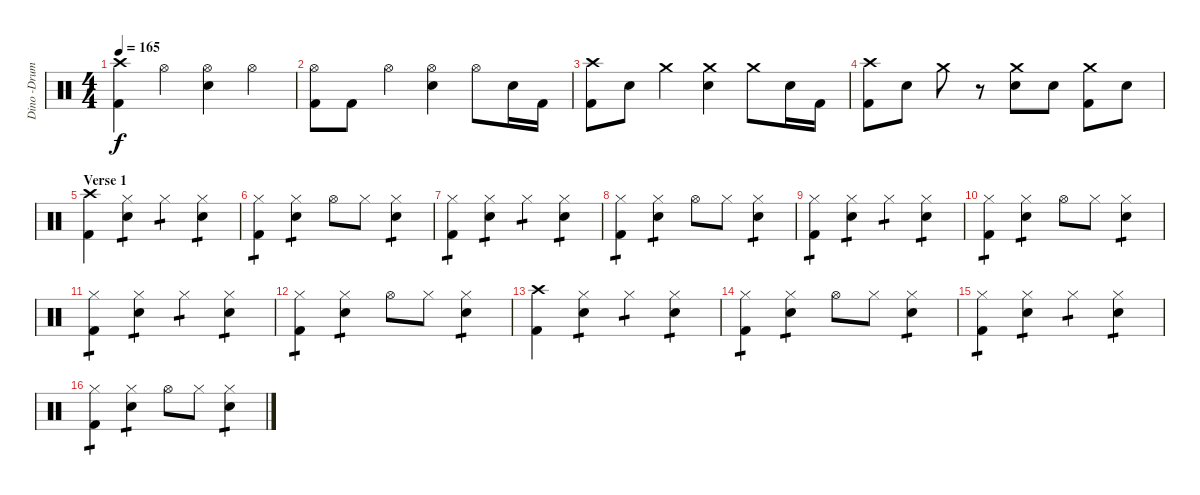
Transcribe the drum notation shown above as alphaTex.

\track ("Dino -Drums" "Dino -Drum") {instrument percussion}
\staff {score}
\articulation defaults
\ts (4 4)
\tempo 165
\clef neutral
\ks c
("Crash high (hit)" "Kick (hit) 2").4{dy f} "Hi-Hat (open)".4 ("Hi-Hat (open)" "Electric Snare (hit)").4 "Hi-Hat (open)".4 |
("Hi-Hat (open)" "Kick (hit) 2").8 "Kick (hit) 2".8 "Hi-Hat (open)".4 ("Hi-Hat (open)" "Electric Snare (hit)").4 "Hi-Hat (open)".8 "Electric Snare (hit)".16 "Kick (hit) 2".16 |
("Crash high (hit)" "Kick (hit) 2").8 "Electric Snare (hit)".8 "Crash medium (hit)".4 ("Crash medium (hit)" "Electric Snare (hit)").4 "Crash medium (hit)".8 "Electric Snare (hit)".16 "Kick (hit) 2".16 |
("Crash high (hit)" "Kick (hit) 2").8 "Electric Snare (hit)".8 "Crash medium (hit)".8 r.8 ("Crash medium (hit)" "Electric Snare (hit)").8 "Electric Snare (hit)".8 ("Crash medium (hit)" "Kick (hit) 2").8 "Electric Snare (hit)".8 |
\section ("" "Verse 1")
("Crash high (hit)" "Kick (hit) 2").4 ("Hi-Hat (closed)" "Electric Snare (hit)").4{tp 1} "Hi-Hat (closed)".4{tp 1} ("Hi-Hat (closed)" "Electric Snare (hit)").4{tp 1} |
("Hi-Hat (closed)" "Kick (hit) 2").4{tp 1} ("Hi-Hat (closed)" "Electric Snare (hit)").4{tp 1} "Hi-Hat (open)".8 "Hi-Hat (closed)".8 ("Hi-Hat (closed)" "Electric Snare (hit)").4{tp 1} |
("Hi-Hat (closed)" "Kick (hit) 2").4{tp 1} ("Hi-Hat (closed)" "Electric Snare (hit)").4{tp 1} "Hi-Hat (closed)".4{tp 1} ("Hi-Hat (closed)" "Electric Snare (hit)").4{tp 1} |
("Hi-Hat (closed)" "Kick (hit) 2").4{tp 1} ("Hi-Hat (closed)" "Electric Snare (hit)").4{tp 1} "Hi-Hat (open)".8 "Hi-Hat (closed)".8 ("Hi-Hat (closed)" "Electric Snare (hit)").4{tp 1} |
("Hi-Hat (closed)" "Kick (hit) 2").4{tp 1} ("Hi-Hat (closed)" "Electric Snare (hit)").4{tp 1} "Hi-Hat (closed)".4{tp 1} ("Hi-Hat (closed)" "Electric Snare (hit)").4{tp 1} |
("Hi-Hat (closed)" "Kick (hit) 2").4{tp 1} ("Hi-Hat (closed)" "Electric Snare (hit)").4{tp 1} "Hi-Hat (open)".8 "Hi-Hat (closed)".8 ("Hi-Hat (closed)" "Electric Snare (hit)").4{tp 1} |
("Hi-Hat (closed)" "Kick (hit) 2").4{tp 1} ("Hi-Hat (closed)" "Electric Snare (hit)").4{tp 1} "Hi-Hat (closed)".4{tp 1} ("Hi-Hat (closed)" "Electric Snare (hit)").4{tp 1} |
("Hi-Hat (closed)" "Kick (hit) 2").4{tp 1} ("Hi-Hat (closed)" "Electric Snare (hit)").4{tp 1} "Hi-Hat (open)".8 "Hi-Hat (closed)".8 ("Hi-Hat (closed)" "Electric Snare (hit)").4{tp 1} |
("Crash high (hit)" "Kick (hit) 2").4 ("Hi-Hat (closed)" "Electric Snare (hit)").4{tp 1} "Hi-Hat (closed)".4{tp 1} ("Hi-Hat (closed)" "Electric Snare (hit)").4{tp 1} |
("Hi-Hat (closed)" "Kick (hit) 2").4{tp 1} ("Hi-Hat (closed)" "Electric Snare (hit)").4{tp 1} "Hi-Hat (open)".8 "Hi-Hat (closed)".8 ("Hi-Hat (closed)" "Electric Snare (hit)").4{tp 1} |
("Hi-Hat (closed)" "Kick (hit) 2").4{tp 1} ("Hi-Hat (closed)" "Electric Snare (hit)").4{tp 1} "Hi-Hat (closed)".4{tp 1} ("Hi-Hat (closed)" "Electric Snare (hit)").4{tp 1} |
("Hi-Hat (closed)" "Kick (hit) 2").4{tp 1} ("Hi-Hat (closed)" "Electric Snare (hit)").4{tp 1} "Hi-Hat (open)".8 "Hi-Hat (closed)".8 ("Hi-Hat (closed)" "Electric Snare (hit)").4{tp 1}
